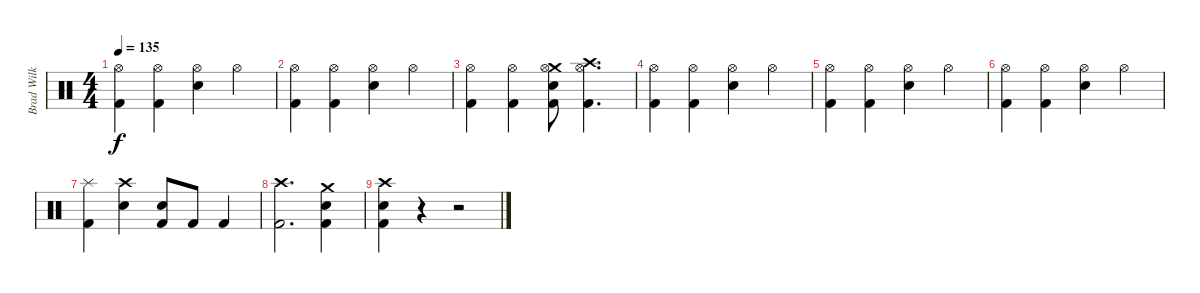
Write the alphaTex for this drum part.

\track ("Brad Wilk" "Brad Wilk") {instrument percussion}
\staff {score}
\articulation defaults
\ts (4 4)
\tempo 135
\clef neutral
\ks c
("Hi-Hat (open)" "Kick (hit) 2").4{dy f} ("Hi-Hat (open)" "Kick (hit) 2").4 ("Hi-Hat (open)" "Electric Snare (hit)").4 "Hi-Hat (open)".4 |
("Hi-Hat (open)" "Kick (hit) 2").4 ("Hi-Hat (open)" "Kick (hit) 2").4 ("Hi-Hat (open)" "Electric Snare (hit)").4 "Hi-Hat (open)".4 |
("Hi-Hat (open)" "Kick (hit) 2").4 ("Hi-Hat (open)" "Kick (hit) 2").4 ("Crash medium (hit)" "Hi-Hat (open)" "Electric Snare (hit)" "Kick (hit) 2").8 ("Crash high (hit)" "Hi-Hat (open)" "Kick (hit) 2").4{d} |
("Hi-Hat (open)" "Kick (hit) 2").4 ("Hi-Hat (open)" "Kick (hit) 2").4 ("Hi-Hat (open)" "Electric Snare (hit)").4 "Hi-Hat (open)".4 |
("Hi-Hat (open)" "Kick (hit) 2").4 ("Hi-Hat (open)" "Kick (hit) 2").4 ("Hi-Hat (open)" "Electric Snare (hit)").4 "Hi-Hat (open)".4 |
("Hi-Hat (open)" "Kick (hit) 2").4 ("Hi-Hat (open)" "Kick (hit) 2").4 ("Hi-Hat (open)" "Electric Snare (hit)").4 "Hi-Hat (open)".4 |
("Splash (hit)" "Kick (hit) 2").4 ("Crash high (hit)" "Electric Snare (hit)").4 ("Electric Snare (hit)" "Kick (hit) 2").8 "Kick (hit) 2".8 "Kick (hit) 2".4 |
("Crash high (hit)" "Kick (hit) 2").2{d} ("Crash medium (hit)" "Electric Snare (hit)" "Kick (hit) 2").4 |
("Crash high (hit)" "Electric Snare (hit)" "Kick (hit) 2").4 r.4 r.2
